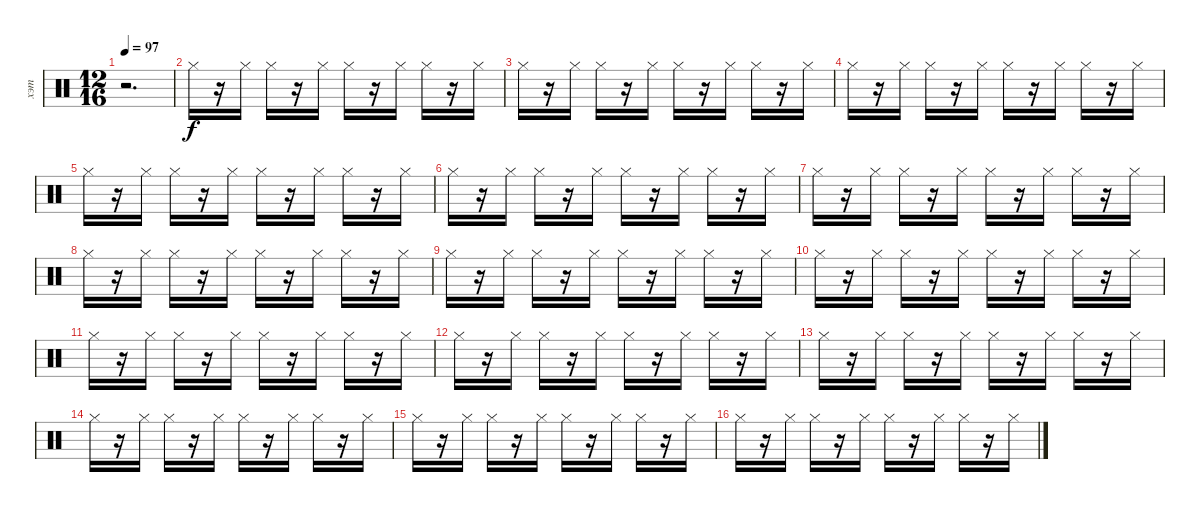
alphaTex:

\track ("хэт" "хэт") {instrument percussion}
\staff {score}
\articulation defaults
\ts (12 16)
\tempo 97
\clef neutral
\ks c
r.2{d dy f} |
"Hi-Hat (closed)".16 r.16 "Hi-Hat (closed)".16 "Hi-Hat (closed)".16 r.16 "Hi-Hat (closed)".16 "Hi-Hat (closed)".16 r.16 "Hi-Hat (closed)".16 "Hi-Hat (closed)".16 r.16 "Hi-Hat (closed)".16 |
"Hi-Hat (closed)".16 r.16 "Hi-Hat (closed)".16 "Hi-Hat (closed)".16 r.16 "Hi-Hat (closed)".16 "Hi-Hat (closed)".16 r.16 "Hi-Hat (closed)".16 "Hi-Hat (closed)".16 r.16 "Hi-Hat (closed)".16 |
"Hi-Hat (closed)".16 r.16 "Hi-Hat (closed)".16 "Hi-Hat (closed)".16 r.16 "Hi-Hat (closed)".16 "Hi-Hat (closed)".16 r.16 "Hi-Hat (closed)".16 "Hi-Hat (closed)".16 r.16 "Hi-Hat (closed)".16 |
"Hi-Hat (closed)".16 r.16 "Hi-Hat (closed)".16 "Hi-Hat (closed)".16 r.16 "Hi-Hat (closed)".16 "Hi-Hat (closed)".16 r.16 "Hi-Hat (closed)".16 "Hi-Hat (closed)".16 r.16 "Hi-Hat (closed)".16 |
"Hi-Hat (closed)".16 r.16 "Hi-Hat (closed)".16 "Hi-Hat (closed)".16 r.16 "Hi-Hat (closed)".16 "Hi-Hat (closed)".16 r.16 "Hi-Hat (closed)".16 "Hi-Hat (closed)".16 r.16 "Hi-Hat (closed)".16 |
"Hi-Hat (closed)".16 r.16 "Hi-Hat (closed)".16 "Hi-Hat (closed)".16 r.16 "Hi-Hat (closed)".16 "Hi-Hat (closed)".16 r.16 "Hi-Hat (closed)".16 "Hi-Hat (closed)".16 r.16 "Hi-Hat (closed)".16 |
"Hi-Hat (closed)".16 r.16 "Hi-Hat (closed)".16 "Hi-Hat (closed)".16 r.16 "Hi-Hat (closed)".16 "Hi-Hat (closed)".16 r.16 "Hi-Hat (closed)".16 "Hi-Hat (closed)".16 r.16 "Hi-Hat (closed)".16 |
"Hi-Hat (closed)".16 r.16 "Hi-Hat (closed)".16 "Hi-Hat (closed)".16 r.16 "Hi-Hat (closed)".16 "Hi-Hat (closed)".16 r.16 "Hi-Hat (closed)".16 "Hi-Hat (closed)".16 r.16 "Hi-Hat (closed)".16 |
"Hi-Hat (closed)".16 r.16 "Hi-Hat (closed)".16 "Hi-Hat (closed)".16 r.16 "Hi-Hat (closed)".16 "Hi-Hat (closed)".16 r.16 "Hi-Hat (closed)".16 "Hi-Hat (closed)".16 r.16 "Hi-Hat (closed)".16 |
"Hi-Hat (closed)".16 r.16 "Hi-Hat (closed)".16 "Hi-Hat (closed)".16 r.16 "Hi-Hat (closed)".16 "Hi-Hat (closed)".16 r.16 "Hi-Hat (closed)".16 "Hi-Hat (closed)".16 r.16 "Hi-Hat (closed)".16 |
"Hi-Hat (closed)".16 r.16 "Hi-Hat (closed)".16 "Hi-Hat (closed)".16 r.16 "Hi-Hat (closed)".16 "Hi-Hat (closed)".16 r.16 "Hi-Hat (closed)".16 "Hi-Hat (closed)".16 r.16 "Hi-Hat (closed)".16 |
"Hi-Hat (closed)".16 r.16 "Hi-Hat (closed)".16 "Hi-Hat (closed)".16 r.16 "Hi-Hat (closed)".16 "Hi-Hat (closed)".16 r.16 "Hi-Hat (closed)".16 "Hi-Hat (closed)".16 r.16 "Hi-Hat (closed)".16 |
"Hi-Hat (closed)".16 r.16 "Hi-Hat (closed)".16 "Hi-Hat (closed)".16 r.16 "Hi-Hat (closed)".16 "Hi-Hat (closed)".16 r.16 "Hi-Hat (closed)".16 "Hi-Hat (closed)".16 r.16 "Hi-Hat (closed)".16 |
"Hi-Hat (closed)".16 r.16 "Hi-Hat (closed)".16 "Hi-Hat (closed)".16 r.16 "Hi-Hat (closed)".16 "Hi-Hat (closed)".16 r.16 "Hi-Hat (closed)".16 "Hi-Hat (closed)".16 r.16 "Hi-Hat (closed)".16 |
"Hi-Hat (closed)".16 r.16 "Hi-Hat (closed)".16 "Hi-Hat (closed)".16 r.16 "Hi-Hat (closed)".16 "Hi-Hat (closed)".16 r.16 "Hi-Hat (closed)".16 "Hi-Hat (closed)".16 r.16 "Hi-Hat (closed)".16
